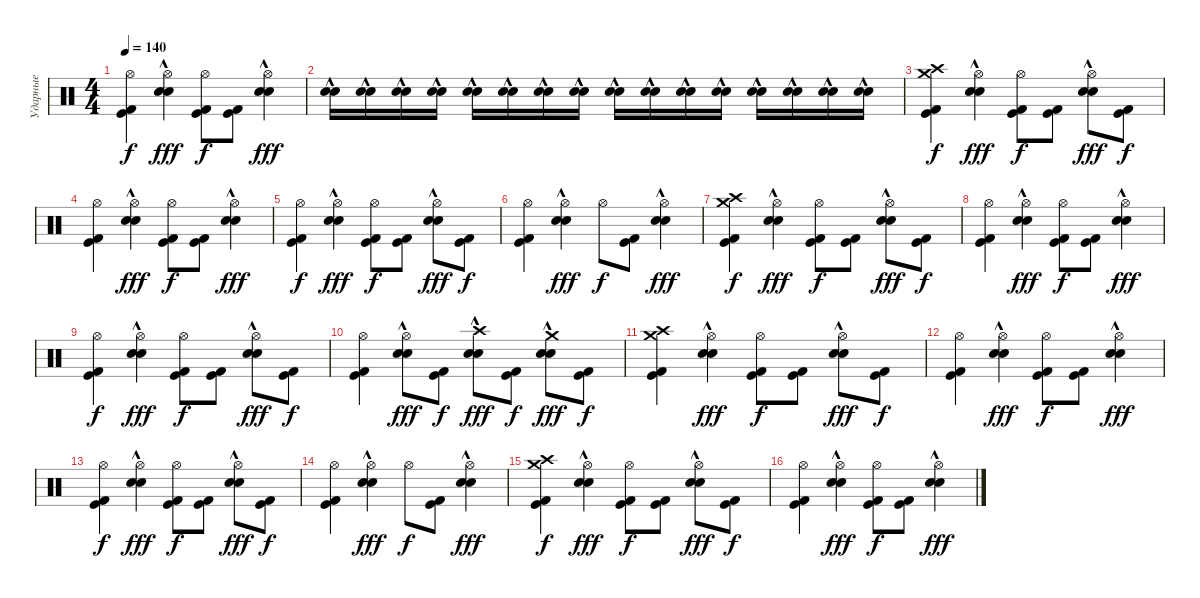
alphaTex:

\track ("Ударные" "Ударные") {instrument percussion}
\staff {score}
\articulation defaults
\ts (4 4)
\tempo 140
\clef neutral
\ks c
("Hi-Hat (open)" "Kick (hit)" "Kick (hit) 2").4{dy f} ("Hi-Hat (open)" "Snare (hit) 2"{hac} "Electric Snare (hit)"{hac}).4{dy fff} ("Hi-Hat (open)" "Kick (hit)" "Kick (hit) 2").8{dy f} ("Kick (hit)" "Kick (hit) 2").8 ("Hi-Hat (open)" "Snare (hit) 2"{hac} "Electric Snare (hit)"{hac}).4{dy fff} |
("Snare (hit) 2"{hac} "Electric Snare (hit)"{hac}).16 ("Snare (hit) 2"{hac} "Electric Snare (hit)"{hac}).16 ("Snare (hit) 2"{hac} "Electric Snare (hit)"{hac}).16 ("Snare (hit) 2"{hac} "Electric Snare (hit)"{hac}).16 ("Snare (hit) 2"{hac} "Electric Snare (hit)"{hac}).16 ("Snare (hit) 2"{hac} "Electric Snare (hit)"{hac}).16 ("Snare (hit) 2"{hac} "Electric Snare (hit)"{hac}).16 ("Snare (hit) 2"{hac} "Electric Snare (hit)"{hac}).16 ("Snare (hit) 2"{hac} "Electric Snare (hit)"{hac}).16 ("Snare (hit) 2"{hac} "Electric Snare (hit)"{hac}).16 ("Snare (hit) 2"{hac} "Electric Snare (hit)"{hac}).16 ("Snare (hit) 2"{hac} "Electric Snare (hit)"{hac}).16 ("Snare (hit) 2"{hac} "Electric Snare (hit)"{hac}).16 ("Snare (hit) 2"{hac} "Electric Snare (hit)"{hac}).16 ("Snare (hit) 2"{hac} "Electric Snare (hit)"{hac}).16 ("Snare (hit) 2"{hac} "Electric Snare (hit)"{hac}).16 |
("Crash high (hit)" "Kick (hit)" "Kick (hit) 2" "Crash medium (hit)").4{dy f} ("Hi-Hat (open)" "Snare (hit) 2"{hac} "Electric Snare (hit)"{hac}).4{dy fff} ("Hi-Hat (open)" "Kick (hit)" "Kick (hit) 2").8{dy f} ("Kick (hit)" "Kick (hit) 2").8 ("Hi-Hat (open)" "Snare (hit) 2"{hac} "Electric Snare (hit)"{hac}).8{dy fff} ("Kick (hit)" "Kick (hit) 2").8{dy f} |
("Hi-Hat (open)" "Kick (hit)" "Kick (hit) 2").4 ("Hi-Hat (open)" "Snare (hit) 2"{hac} "Electric Snare (hit)"{hac}).4{dy fff} ("Hi-Hat (open)" "Kick (hit)" "Kick (hit) 2").8{dy f} ("Kick (hit)" "Kick (hit) 2").8 ("Hi-Hat (open)" "Snare (hit) 2"{hac} "Electric Snare (hit)"{hac}).4{dy fff} |
("Hi-Hat (open)" "Kick (hit)" "Kick (hit) 2").4{dy f} ("Hi-Hat (open)" "Snare (hit) 2"{hac} "Electric Snare (hit)"{hac}).4{dy fff} ("Hi-Hat (open)" "Kick (hit)" "Kick (hit) 2").8{dy f} ("Kick (hit)" "Kick (hit) 2").8 ("Hi-Hat (open)" "Snare (hit) 2"{hac} "Electric Snare (hit)"{hac}).8{dy fff} ("Kick (hit)" "Kick (hit) 2").8{dy f} |
("Hi-Hat (open)" "Kick (hit)" "Kick (hit) 2").4 ("Hi-Hat (open)" "Snare (hit) 2"{hac} "Electric Snare (hit)"{hac}).4{dy fff} "Hi-Hat (open)".8{dy f} ("Kick (hit)" "Kick (hit) 2").8 ("Hi-Hat (open)" "Snare (hit) 2"{hac} "Electric Snare (hit)"{hac}).4{dy fff} |
("Crash high (hit)" "Kick (hit)" "Kick (hit) 2" "Crash medium (hit)").4{dy f} ("Hi-Hat (open)" "Snare (hit) 2"{hac} "Electric Snare (hit)"{hac}).4{dy fff} ("Hi-Hat (open)" "Kick (hit)" "Kick (hit) 2").8{dy f} ("Kick (hit)" "Kick (hit) 2").8 ("Hi-Hat (open)" "Snare (hit) 2"{hac} "Electric Snare (hit)"{hac}).8{dy fff} ("Kick (hit)" "Kick (hit) 2").8{dy f} |
("Hi-Hat (open)" "Kick (hit)" "Kick (hit) 2").4 ("Hi-Hat (open)" "Snare (hit) 2"{hac} "Electric Snare (hit)"{hac}).4{dy fff} ("Hi-Hat (open)" "Kick (hit)" "Kick (hit) 2").8{dy f} ("Kick (hit)" "Kick (hit) 2").8 ("Hi-Hat (open)" "Snare (hit) 2"{hac} "Electric Snare (hit)"{hac}).4{dy fff} |
("Hi-Hat (open)" "Kick (hit)" "Kick (hit) 2").4{dy f} ("Hi-Hat (open)" "Snare (hit) 2"{hac} "Electric Snare (hit)"{hac}).4{dy fff} ("Hi-Hat (open)" "Kick (hit)" "Kick (hit) 2").8{dy f} ("Kick (hit)" "Kick (hit) 2").8 ("Hi-Hat (open)" "Snare (hit) 2"{hac} "Electric Snare (hit)"{hac}).8{dy fff} ("Kick (hit)" "Kick (hit) 2").8{dy f} |
("Hi-Hat (open)" "Kick (hit)" "Kick (hit) 2").4 ("Hi-Hat (open)" "Snare (hit) 2"{hac} "Electric Snare (hit)"{hac}).8{dy fff} ("Kick (hit)" "Kick (hit) 2").8{dy f} ("Crash high (hit)" "Snare (hit) 2"{hac} "Electric Snare (hit)"{hac}).8{dy fff} ("Kick (hit)" "Kick (hit) 2").8{dy f} ("Crash medium (hit)" "Snare (hit) 2"{hac} "Electric Snare (hit)"{hac}).8{dy fff} ("Kick (hit)" "Kick (hit) 2").8{dy f} |
("Crash high (hit)" "Kick (hit)" "Kick (hit) 2" "Crash medium (hit)").4 ("Hi-Hat (open)" "Snare (hit) 2"{hac} "Electric Snare (hit)"{hac}).4{dy fff} ("Hi-Hat (open)" "Kick (hit)" "Kick (hit) 2").8{dy f} ("Kick (hit)" "Kick (hit) 2").8 ("Hi-Hat (open)" "Snare (hit) 2"{hac} "Electric Snare (hit)"{hac}).8{dy fff} ("Kick (hit)" "Kick (hit) 2").8{dy f} |
("Hi-Hat (open)" "Kick (hit)" "Kick (hit) 2").4 ("Hi-Hat (open)" "Snare (hit) 2"{hac} "Electric Snare (hit)"{hac}).4{dy fff} ("Hi-Hat (open)" "Kick (hit)" "Kick (hit) 2").8{dy f} ("Kick (hit)" "Kick (hit) 2").8 ("Hi-Hat (open)" "Snare (hit) 2"{hac} "Electric Snare (hit)"{hac}).4{dy fff} |
("Hi-Hat (open)" "Kick (hit)" "Kick (hit) 2").4{dy f} ("Hi-Hat (open)" "Snare (hit) 2"{hac} "Electric Snare (hit)"{hac}).4{dy fff} ("Hi-Hat (open)" "Kick (hit)" "Kick (hit) 2").8{dy f} ("Kick (hit)" "Kick (hit) 2").8 ("Hi-Hat (open)" "Snare (hit) 2"{hac} "Electric Snare (hit)"{hac}).8{dy fff} ("Kick (hit)" "Kick (hit) 2").8{dy f} |
("Hi-Hat (open)" "Kick (hit)" "Kick (hit) 2").4 ("Hi-Hat (open)" "Snare (hit) 2"{hac} "Electric Snare (hit)"{hac}).4{dy fff} "Hi-Hat (open)".8{dy f} ("Kick (hit)" "Kick (hit) 2").8 ("Hi-Hat (open)" "Snare (hit) 2"{hac} "Electric Snare (hit)"{hac}).4{dy fff} |
("Crash high (hit)" "Kick (hit)" "Kick (hit) 2" "Crash medium (hit)").4{dy f} ("Hi-Hat (open)" "Snare (hit) 2"{hac} "Electric Snare (hit)"{hac}).4{dy fff} ("Hi-Hat (open)" "Kick (hit)" "Kick (hit) 2").8{dy f} ("Kick (hit)" "Kick (hit) 2").8 ("Hi-Hat (open)" "Snare (hit) 2"{hac} "Electric Snare (hit)"{hac}).8{dy fff} ("Kick (hit)" "Kick (hit) 2").8{dy f} |
("Hi-Hat (open)" "Kick (hit)" "Kick (hit) 2").4 ("Hi-Hat (open)" "Snare (hit) 2"{hac} "Electric Snare (hit)"{hac}).4{dy fff} ("Hi-Hat (open)" "Kick (hit)" "Kick (hit) 2").8{dy f} ("Kick (hit)" "Kick (hit) 2").8 ("Hi-Hat (open)" "Snare (hit) 2"{hac} "Electric Snare (hit)"{hac}).4{dy fff}
